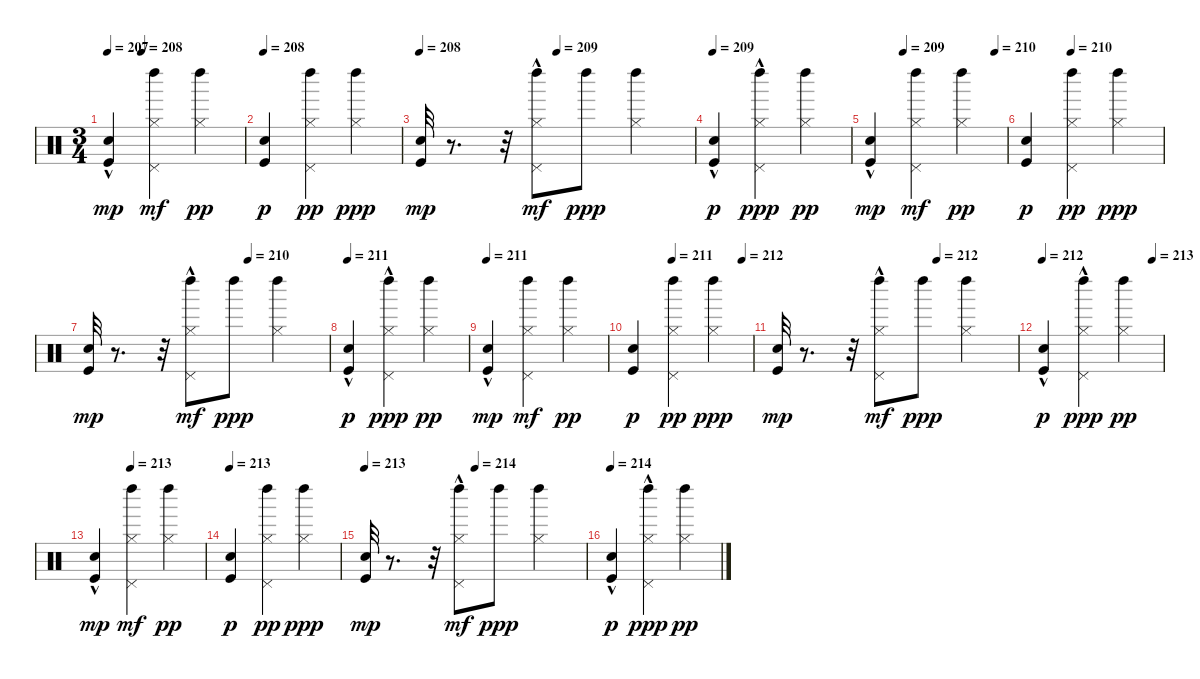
\track "" {instrument percussion}
\staff {score}
\articulation defaults
\ts (3 4)
\tempo 207
\tempo (208 0.25)
\clef neutral
\ks c
("Kick (hit)" "Snare (hit)"{hac}).4{dy mp} ("Pedal Hi-Hat (hit)" "Left Maraca (hit)" "Hi-Hat (closed)").4{dy mf} ("Hi-Hat (closed)" "Left Maraca (hit)").4{dy pp} |
\tempo 208
("Snare (hit)" "Kick (hit)").4{dy p} ("Hi-Hat (closed)" "Pedal Hi-Hat (hit)" "Left Maraca (hit)").4{dy pp} ("Hi-Hat (closed)" "Left Maraca (hit)").4{dy ppp} |
\tempo 208
\tempo (209 0.5)
("Kick (hit)" "Snare (hit)").32{dy mp} r.8{d} r.32 ("Left Maraca (hit)" "Pedal Hi-Hat (hit)"{hac} "Hi-Hat (closed)").8{dy mf} "Left Maraca (hit)".8{dy ppp} ("Hi-Hat (closed)" "Left Maraca (hit)").4 |
\tempo 209
("Snare (hit)"{hac} "Kick (hit)").4{dy p} ("Pedal Hi-Hat (hit)"{hac} "Hi-Hat (closed)" "Left Maraca (hit)").4{dy ppp} ("Hi-Hat (closed)" "Left Maraca (hit)").4{dy pp} |
\tempo (209 0.25)
\tempo (210 0.9166666666666666)
("Kick (hit)" "Snare (hit)"{hac}).4{dy mp} ("Pedal Hi-Hat (hit)" "Left Maraca (hit)" "Hi-Hat (closed)").4{dy mf} ("Hi-Hat (closed)" "Left Maraca (hit)").4{dy pp} |
\tempo (210 0.3333333333333333)
("Snare (hit)" "Kick (hit)").4{dy p} ("Hi-Hat (closed)" "Pedal Hi-Hat (hit)" "Left Maraca (hit)").4{dy pp} ("Hi-Hat (closed)" "Left Maraca (hit)").4{dy ppp} |
\tempo (210 0.6666666666666666)
("Kick (hit)" "Snare (hit)").32{dy mp} r.8{d} r.32 ("Left Maraca (hit)" "Pedal Hi-Hat (hit)"{hac} "Hi-Hat (closed)").8{dy mf} "Left Maraca (hit)".8{dy ppp} ("Hi-Hat (closed)" "Left Maraca (hit)").4 |
\tempo 211
("Snare (hit)"{hac} "Kick (hit)").4{dy p} ("Pedal Hi-Hat (hit)"{hac} "Hi-Hat (closed)" "Left Maraca (hit)").4{dy ppp} ("Hi-Hat (closed)" "Left Maraca (hit)").4{dy pp} |
\tempo 211
("Kick (hit)" "Snare (hit)"{hac}).4{dy mp} ("Pedal Hi-Hat (hit)" "Left Maraca (hit)" "Hi-Hat (closed)").4{dy mf} ("Hi-Hat (closed)" "Left Maraca (hit)").4{dy pp} |
\tempo (211 0.3333333333333333)
\tempo (212 0.9166666666666666)
("Snare (hit)" "Kick (hit)").4{dy p} ("Hi-Hat (closed)" "Pedal Hi-Hat (hit)" "Left Maraca (hit)").4{dy pp} ("Hi-Hat (closed)" "Left Maraca (hit)").4{dy ppp} |
\tempo (212 0.6666666666666666)
("Kick (hit)" "Snare (hit)").32{dy mp} r.8{d} r.32 ("Left Maraca (hit)" "Pedal Hi-Hat (hit)"{hac} "Hi-Hat (closed)").8{dy mf} "Left Maraca (hit)".8{dy ppp} ("Hi-Hat (closed)" "Left Maraca (hit)").4 |
\tempo 212
\tempo (213 0.9166666666666666)
("Snare (hit)"{hac} "Kick (hit)").4{dy p} ("Pedal Hi-Hat (hit)"{hac} "Hi-Hat (closed)" "Left Maraca (hit)").4{dy ppp} ("Hi-Hat (closed)" "Left Maraca (hit)").4{dy pp} |
\tempo (213 0.3333333333333333)
("Kick (hit)" "Snare (hit)"{hac}).4{dy mp} ("Pedal Hi-Hat (hit)" "Left Maraca (hit)" "Hi-Hat (closed)").4{dy mf} ("Hi-Hat (closed)" "Left Maraca (hit)").4{dy pp} |
\tempo 213
("Snare (hit)" "Kick (hit)").4{dy p} ("Hi-Hat (closed)" "Pedal Hi-Hat (hit)" "Left Maraca (hit)").4{dy pp} ("Hi-Hat (closed)" "Left Maraca (hit)").4{dy ppp} |
\tempo 213
\tempo (214 0.5)
("Kick (hit)" "Snare (hit)").32{dy mp} r.8{d} r.32 ("Left Maraca (hit)" "Pedal Hi-Hat (hit)"{hac} "Hi-Hat (closed)").8{dy mf} "Left Maraca (hit)".8{dy ppp} ("Hi-Hat (closed)" "Left Maraca (hit)").4 |
\tempo 214
("Snare (hit)"{hac} "Kick (hit)").4{dy p} ("Pedal Hi-Hat (hit)"{hac} "Hi-Hat (closed)" "Left Maraca (hit)").4{dy ppp} ("Hi-Hat (closed)" "Left Maraca (hit)").4{dy pp}
